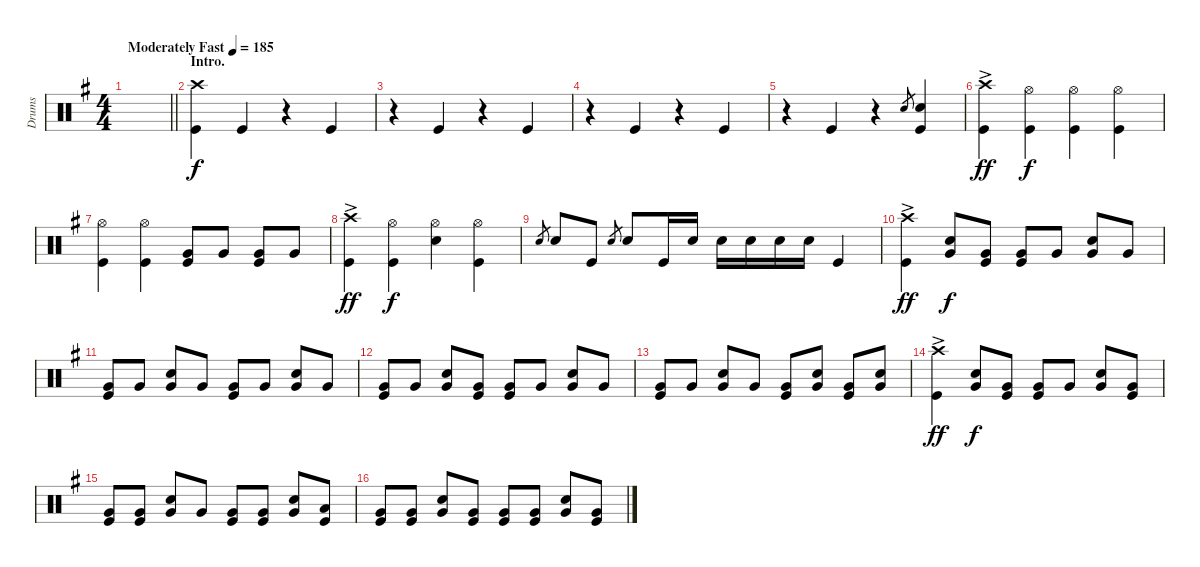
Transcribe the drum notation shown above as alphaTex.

\track ("Drums" "Drums") {instrument percussion}
\staff {score}
\articulation defaults
\ts (4 4)
\tempo (185 "Moderately Fast")
\clef neutral
\barLineRight lightlight
\ks g
|
\section ("" "Intro.")
("Crash high (hit)" "Kick (hit)").4 "Kick (hit)".4 r.4 "Kick (hit)".4 |
r.4 "Kick (hit)".4 r.4 "Kick (hit)".4 |
r.4 "Kick (hit)".4 r.4 "Kick (hit)".4 |
r.4 "Kick (hit)".4 r.4 "Snare (hit) 2".8{gr} ("Kick (hit)" "Snare (hit) 2").4 |
("Crash high (hit)"{ac} "Kick (hit)").4{dy ff} ("Hi-Hat (open)" "Kick (hit)").4{dy f} ("Hi-Hat (open)" "Kick (hit)").4 ("Hi-Hat (open)" "Kick (hit)").4 |
("Hi-Hat (open)" "Kick (hit)").4 ("Hi-Hat (open)" "Kick (hit)").4 ("Kick (hit)" "Very Low Tom (hit)").8 "Very Low Tom (hit)".8 ("Very Low Tom (hit)" "Kick (hit)").8 "Very Low Tom (hit)".8 |
("Crash high (hit)"{ac} "Kick (hit)").4{dy ff} ("Hi-Hat (open)" "Kick (hit)").4{dy f} ("Hi-Hat (open)" "Snare (hit) 2").4 ("Hi-Hat (open)" "Kick (hit)").4 |
"Snare (hit) 2".8{gr} "Snare (hit) 2".8 "Kick (hit)".8 "Snare (hit) 2".8{gr} "Snare (hit) 2".8 "Kick (hit)".16 "Snare (hit) 2".16 "Snare (hit) 2".16 "Snare (hit) 2".16 "Snare (hit) 2".16 "Snare (hit) 2".16 "Kick (hit)".4 |
("Crash high (hit)"{ac} "Kick (hit)").4{dy ff} ("Snare (hit) 2" "Very Low Tom (hit)").8{dy f} ("Very Low Tom (hit)" "Kick (hit)").8 ("Very Low Tom (hit)" "Kick (hit)").8 "Very Low Tom (hit)".8 ("Snare (hit) 2" "Very Low Tom (hit)").8 "Very Low Tom (hit)".8 |
("Very Low Tom (hit)" "Kick (hit)").8 "Very Low Tom (hit)".8 ("Snare (hit) 2" "Very Low Tom (hit)").8 "Very Low Tom (hit)".8 ("Very Low Tom (hit)" "Kick (hit)").8 "Very Low Tom (hit)".8 ("Snare (hit) 2" "Very Low Tom (hit)").8 "Very Low Tom (hit)".8 |
("Very Low Tom (hit)" "Kick (hit)").8 "Very Low Tom (hit)".8 ("Snare (hit) 2" "Very Low Tom (hit)").8 ("Very Low Tom (hit)" "Kick (hit)").8 ("Very Low Tom (hit)" "Kick (hit)").8 "Very Low Tom (hit)".8 ("Snare (hit) 2" "Very Low Tom (hit)").8 "Very Low Tom (hit)".8 |
("Very Low Tom (hit)" "Kick (hit)").8 "Very Low Tom (hit)".8 ("Snare (hit) 2" "Very Low Tom (hit)").8 "Very Low Tom (hit)".8 ("Very Low Tom (hit)" "Kick (hit)").8 ("Snare (hit) 2" "Very Low Tom (hit)").8 ("Very Low Tom (hit)" "Kick (hit)").8 ("Snare (hit) 2" "Very Low Tom (hit)").8 |
("Crash high (hit)"{ac} "Kick (hit)").4{dy ff} ("Snare (hit) 2" "Very Low Tom (hit)").8{dy f} ("Very Low Tom (hit)" "Kick (hit)").8 ("Very Low Tom (hit)" "Kick (hit)").8 "Very Low Tom (hit)".8 ("Snare (hit) 2" "Very Low Tom (hit)").8 ("Very Low Tom (hit)" "Kick (hit)").8 |
("Very Low Tom (hit)" "Kick (hit)").8 ("Very Low Tom (hit)" "Kick (hit)").8 ("Snare (hit) 2" "Very Low Tom (hit)").8 "Very Low Tom (hit)".8 ("Very Low Tom (hit)" "Kick (hit)").8 ("Very Low Tom (hit)" "Kick (hit)").8 ("Snare (hit) 2" "Very Low Tom (hit)").8 ("Low Tom (hit)" "Kick (hit)").8 |
("Very Low Tom (hit)" "Kick (hit)").8 ("Very Low Tom (hit)" "Kick (hit)").8 ("Snare (hit) 2" "Very Low Tom (hit)").8 ("Very Low Tom (hit)" "Kick (hit)").8 ("Very Low Tom (hit)" "Kick (hit)").8 ("Very Low Tom (hit)" "Kick (hit)").8 ("Snare (hit) 2" "Very Low Tom (hit)").8 ("Very Low Tom (hit)" "Kick (hit)").8
